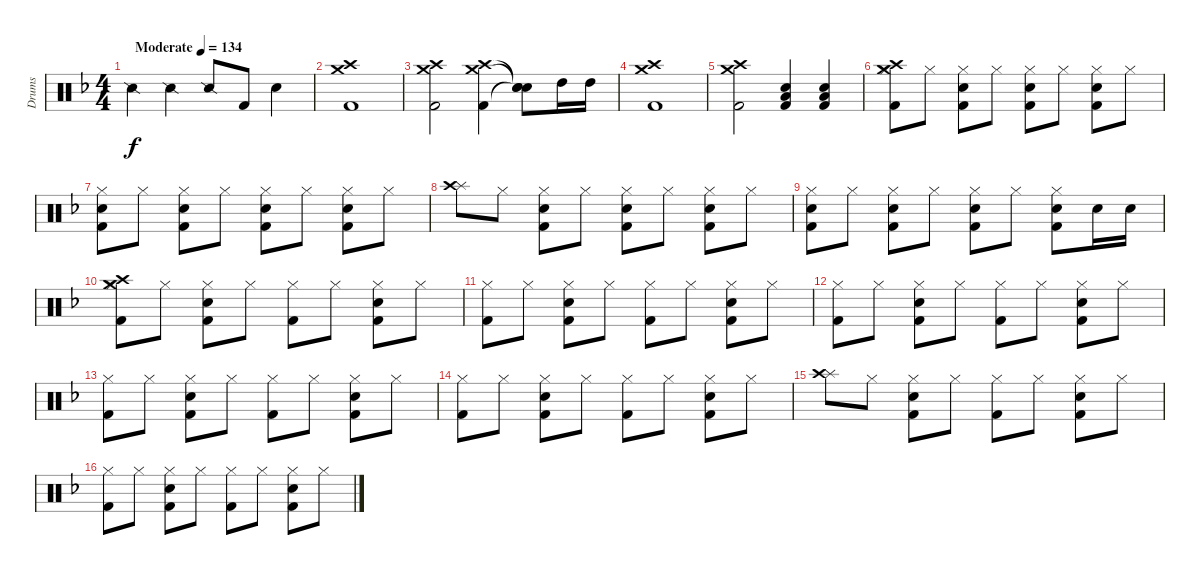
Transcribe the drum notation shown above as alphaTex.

\track ("Drums" "Drums") {instrument percussion}
\staff {score}
\articulation defaults
\ts (4 4)
\tempo (134 "Moderate")
\clef neutral
\ks f "Snare (side stick) 2".4{dy f} "Snare (side stick) 2".4 "Snare (side stick) 2".8 "Kick (hit) 2".8 "Snare (hit) 2".4
|
("Kick (hit) 2" "Crash medium (hit)" "Crash high (hit)").1 |
("Kick (hit) 2" "Crash high (hit)" "Crash medium (hit)").2 ("Kick (hit) 2" "Crash high (hit)" "Crash medium (hit)").4 ("Snare (hit)"{t} "Snare (hit)"{t} "Snare (hit)"{t}).8 "High Tom (hit)".16 "High Tom (hit)".16 |
("Kick (hit) 2" "Crash high (hit)" "Crash medium (hit)").1 |
("Kick (hit) 2" "Crash medium (hit)" "Crash high (hit)").2 ("Kick (hit) 2" "Snare (hit) 2" "Low Tom (hit)").4 ("Kick (hit) 2" "Snare (hit) 2" "Low Tom (hit)").4 |
("Hi-Hat (closed)" "Kick (hit) 2" "Crash high (hit)" "Crash medium (hit)").8 "Hi-Hat (closed)".8 ("Hi-Hat (closed)" "Kick (hit) 2" "Snare (hit) 2").8 "Hi-Hat (closed)".8 ("Hi-Hat (closed)" "Snare (hit) 2" "Kick (hit) 2").8 "Hi-Hat (closed)".8 ("Hi-Hat (closed)" "Kick (hit) 2" "Snare (hit) 2").8 "Hi-Hat (closed)".8 |
("Hi-Hat (closed)" "Kick (hit) 2" "Snare (hit) 2").8 "Hi-Hat (closed)".8 ("Hi-Hat (closed)" "Kick (hit) 2" "Snare (hit) 2").8 "Hi-Hat (closed)".8 ("Hi-Hat (closed)" "Kick (hit) 2" "Snare (hit) 2").8 "Hi-Hat (closed)".8 ("Hi-Hat (closed)" "Kick (hit) 2" "Snare (hit) 2").8 "Hi-Hat (closed)".8 |
("Splash (hit)" "Crash high (hit)").8 "Hi-Hat (closed)".8 ("Hi-Hat (closed)" "Kick (hit) 2" "Snare (hit) 2").8 "Hi-Hat (closed)".8 ("Hi-Hat (closed)" "Kick (hit) 2" "Snare (hit) 2").8 "Hi-Hat (closed)".8 ("Hi-Hat (closed)" "Kick (hit) 2" "Snare (hit) 2").8 "Hi-Hat (closed)".8 |
("Hi-Hat (closed)" "Kick (hit) 2" "Snare (hit) 2").8 "Hi-Hat (closed)".8 ("Hi-Hat (closed)" "Kick (hit) 2" "Snare (hit) 2").8 "Hi-Hat (closed)".8 ("Hi-Hat (closed)" "Kick (hit) 2" "Snare (hit) 2").8 "Hi-Hat (closed)".8 ("Hi-Hat (closed)" "Kick (hit) 2" "Snare (hit) 2").8 "Snare (hit) 2".16 "Snare (hit) 2".16 |
("Hi-Hat (closed)" "Kick (hit) 2" "Crash high (hit)" "Crash medium (hit)").8 "Hi-Hat (closed)".8 ("Hi-Hat (closed)" "Kick (hit) 2" "Snare (hit) 2").8 "Hi-Hat (closed)".8 ("Hi-Hat (closed)" "Kick (hit) 2").8 "Hi-Hat (closed)".8 ("Hi-Hat (closed)" "Kick (hit) 2" "Snare (hit) 2").8 "Hi-Hat (closed)".8 |
("Hi-Hat (closed)" "Kick (hit) 2").8 "Hi-Hat (closed)".8 ("Hi-Hat (closed)" "Kick (hit) 2" "Snare (hit) 2").8 "Hi-Hat (closed)".8 ("Hi-Hat (closed)" "Kick (hit) 2").8 "Hi-Hat (closed)".8 ("Hi-Hat (closed)" "Kick (hit) 2" "Snare (hit) 2").8 "Hi-Hat (closed)".8 |
("Hi-Hat (closed)" "Kick (hit) 2").8 "Hi-Hat (closed)".8 ("Hi-Hat (closed)" "Kick (hit) 2" "Snare (hit) 2").8 "Hi-Hat (closed)".8 ("Hi-Hat (closed)" "Kick (hit) 2").8 "Hi-Hat (closed)".8 ("Hi-Hat (closed)" "Kick (hit) 2" "Snare (hit) 2").8 "Hi-Hat (closed)".8 |
("Hi-Hat (closed)" "Kick (hit) 2").8 "Hi-Hat (closed)".8 ("Hi-Hat (closed)" "Kick (hit) 2" "Snare (hit) 2").8 "Hi-Hat (closed)".8 ("Hi-Hat (closed)" "Kick (hit) 2").8 "Hi-Hat (closed)".8 ("Hi-Hat (closed)" "Kick (hit) 2" "Snare (hit) 2").8 "Hi-Hat (closed)".8 |
("Hi-Hat (closed)" "Kick (hit) 2").8 "Hi-Hat (closed)".8 ("Hi-Hat (closed)" "Kick (hit) 2" "Snare (hit) 2").8 "Hi-Hat (closed)".8 ("Hi-Hat (closed)" "Kick (hit) 2").8 "Hi-Hat (closed)".8 ("Hi-Hat (closed)" "Kick (hit) 2" "Snare (hit) 2").8 "Hi-Hat (closed)".8 |
("Splash (hit)" "Crash high (hit)").8 "Hi-Hat (closed)".8 ("Hi-Hat (closed)" "Kick (hit) 2" "Snare (hit) 2").8 "Hi-Hat (closed)".8 ("Hi-Hat (closed)" "Kick (hit) 2").8 "Hi-Hat (closed)".8 ("Hi-Hat (closed)" "Kick (hit) 2" "Snare (hit) 2").8 "Hi-Hat (closed)".8 |
("Hi-Hat (closed)" "Kick (hit) 2").8 "Hi-Hat (closed)".8 ("Hi-Hat (closed)" "Kick (hit) 2" "Snare (hit) 2").8 "Hi-Hat (closed)".8 ("Hi-Hat (closed)" "Kick (hit) 2").8 "Hi-Hat (closed)".8 ("Hi-Hat (closed)" "Kick (hit) 2" "Snare (hit) 2").8 "Hi-Hat (closed)".8
